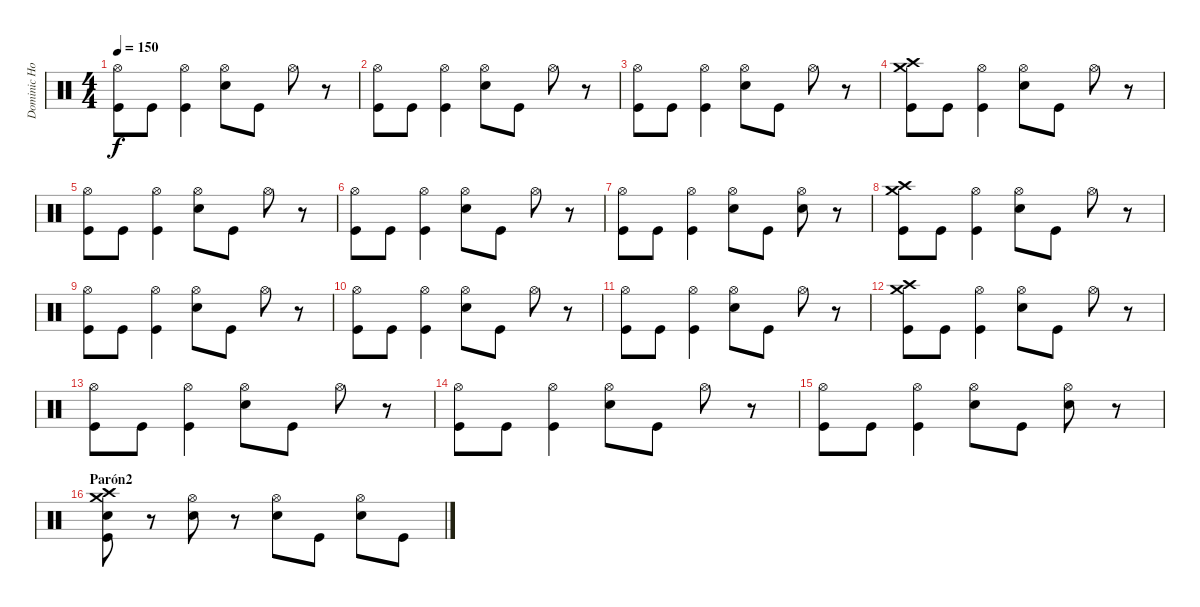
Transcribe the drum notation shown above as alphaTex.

\track ("Dominic Howard" "Dominic Ho") {instrument percussion}
\staff {score}
\articulation defaults
\ts (4 4)
\tempo 150
\clef neutral
\ks c
("Hi-Hat (open)" "Kick (hit)").8{dy f} "Kick (hit)".8 ("Hi-Hat (open)" "Kick (hit)").4 ("Hi-Hat (open)" "Snare (hit) 2").8 "Kick (hit)".8 "Hi-Hat (open)".8 r.8 |
("Hi-Hat (open)" "Kick (hit)").8 "Kick (hit)".8 ("Hi-Hat (open)" "Kick (hit)").4 ("Hi-Hat (open)" "Snare (hit) 2").8 "Kick (hit)".8 "Hi-Hat (open)".8 r.8 |
("Hi-Hat (open)" "Kick (hit)").8 "Kick (hit)".8 ("Hi-Hat (open)" "Kick (hit)").4 ("Hi-Hat (open)" "Snare (hit) 2").8 "Kick (hit)".8 "Hi-Hat (open)".8 r.8 |
("Crash high (hit)" "Crash medium (hit)" "Kick (hit)").8 "Kick (hit)".8 ("Hi-Hat (open)" "Kick (hit)").4 ("Hi-Hat (open)" "Snare (hit) 2").8 "Kick (hit)".8 "Hi-Hat (open)".8 r.8 |
("Hi-Hat (open)" "Kick (hit)").8 "Kick (hit)".8 ("Hi-Hat (open)" "Kick (hit)").4 ("Hi-Hat (open)" "Snare (hit) 2").8 "Kick (hit)".8 "Hi-Hat (open)".8 r.8 |
("Hi-Hat (open)" "Kick (hit)").8 "Kick (hit)".8 ("Hi-Hat (open)" "Kick (hit)").4 ("Hi-Hat (open)" "Snare (hit) 2").8 "Kick (hit)".8 "Hi-Hat (open)".8 r.8 |
("Hi-Hat (open)" "Kick (hit)").8 "Kick (hit)".8 ("Hi-Hat (open)" "Kick (hit)").4 ("Hi-Hat (open)" "Snare (hit) 2").8 "Kick (hit)".8 ("Hi-Hat (open)" "Snare (hit) 2").8 r.8 |
("Crash high (hit)" "Crash medium (hit)" "Kick (hit)").8 "Kick (hit)".8 ("Hi-Hat (open)" "Kick (hit)").4 ("Hi-Hat (open)" "Snare (hit) 2").8 "Kick (hit)".8 "Hi-Hat (open)".8 r.8 |
("Hi-Hat (open)" "Kick (hit)").8 "Kick (hit)".8 ("Hi-Hat (open)" "Kick (hit)").4 ("Hi-Hat (open)" "Snare (hit) 2").8 "Kick (hit)".8 "Hi-Hat (open)".8 r.8 |
("Hi-Hat (open)" "Kick (hit)").8 "Kick (hit)".8 ("Hi-Hat (open)" "Kick (hit)").4 ("Hi-Hat (open)" "Snare (hit) 2").8 "Kick (hit)".8 "Hi-Hat (open)".8 r.8 |
("Hi-Hat (open)" "Kick (hit)").8 "Kick (hit)".8 ("Hi-Hat (open)" "Kick (hit)").4 ("Hi-Hat (open)" "Snare (hit) 2").8 "Kick (hit)".8 "Hi-Hat (open)".8 r.8 |
("Crash high (hit)" "Crash medium (hit)" "Kick (hit)").8 "Kick (hit)".8 ("Hi-Hat (open)" "Kick (hit)").4 ("Hi-Hat (open)" "Snare (hit) 2").8 "Kick (hit)".8 "Hi-Hat (open)".8 r.8 |
("Hi-Hat (open)" "Kick (hit)").8 "Kick (hit)".8 ("Hi-Hat (open)" "Kick (hit)").4 ("Hi-Hat (open)" "Snare (hit) 2").8 "Kick (hit)".8 "Hi-Hat (open)".8 r.8 |
("Hi-Hat (open)" "Kick (hit)").8 "Kick (hit)".8 ("Hi-Hat (open)" "Kick (hit)").4 ("Hi-Hat (open)" "Snare (hit) 2").8 "Kick (hit)".8 "Hi-Hat (open)".8 r.8 |
("Hi-Hat (open)" "Kick (hit)").8 "Kick (hit)".8 ("Hi-Hat (open)" "Kick (hit)").4 ("Hi-Hat (open)" "Snare (hit) 2").8 "Kick (hit)".8 ("Hi-Hat (open)" "Snare (hit) 2").8 r.8 |
\section ("" "Parón2")
("Crash medium (hit)" "Snare (hit) 2" "Crash high (hit)" "Kick (hit)").8 r.8 ("Hi-Hat (open)" "Snare (hit) 2").8 r.8 ("Hi-Hat (open)" "Snare (hit) 2").8 "Kick (hit)".8 ("Hi-Hat (open)" "Snare (hit) 2").8 "Kick (hit)".8
